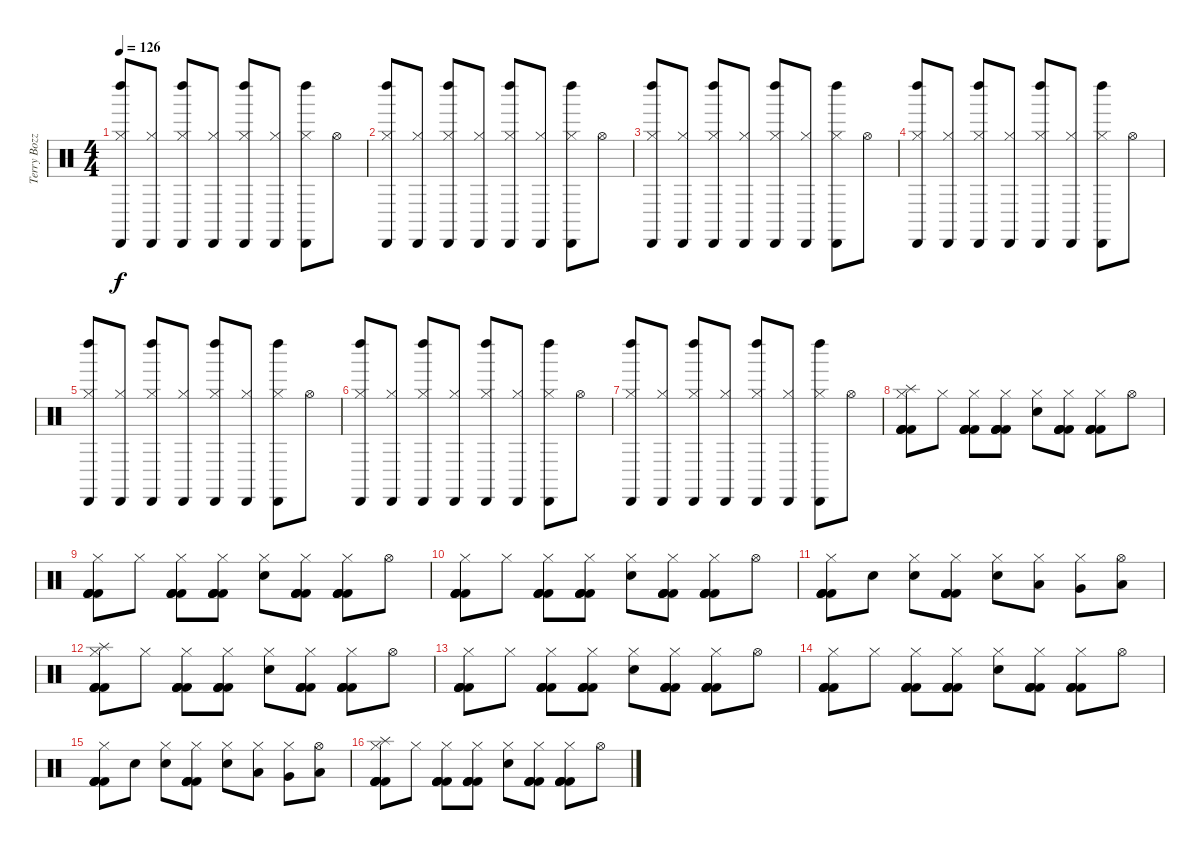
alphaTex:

\track ("Terry Bozzio" "Terry Bozz") {instrument percussion}
\staff {score}
\articulation defaults
\ts (4 4)
\tempo 126
\clef neutral
\ks c
("Hi-Hat (closed)" "Cabasa (hit)" "Left Maraca (hit)").8{dy f} ("Hi-Hat (closed)" "Cabasa (hit)").8 ("Hi-Hat (closed)" "Cabasa (hit)" "Left Maraca (hit)").8 ("Hi-Hat (closed)" "Cabasa (hit)").8 ("Hi-Hat (closed)" "Cabasa (hit)" "Left Maraca (hit)").8 ("Hi-Hat (closed)" "Cabasa (hit)").8 ("Hi-Hat (closed)" "Cabasa (hit)" "Left Maraca (hit)").8 "Hi-Hat (open)".8 |
("Hi-Hat (closed)" "Cabasa (hit)" "Left Maraca (hit)").8 ("Hi-Hat (closed)" "Cabasa (hit)").8 ("Hi-Hat (closed)" "Cabasa (hit)" "Left Maraca (hit)").8 ("Hi-Hat (closed)" "Cabasa (hit)").8 ("Hi-Hat (closed)" "Cabasa (hit)" "Left Maraca (hit)").8 ("Hi-Hat (closed)" "Cabasa (hit)").8 ("Hi-Hat (closed)" "Cabasa (hit)" "Left Maraca (hit)").8 "Hi-Hat (open)".8 |
("Hi-Hat (closed)" "Cabasa (hit)" "Left Maraca (hit)").8 ("Hi-Hat (closed)" "Cabasa (hit)").8 ("Hi-Hat (closed)" "Cabasa (hit)" "Left Maraca (hit)").8 ("Hi-Hat (closed)" "Cabasa (hit)").8 ("Hi-Hat (closed)" "Cabasa (hit)" "Left Maraca (hit)").8 ("Hi-Hat (closed)" "Cabasa (hit)").8 ("Hi-Hat (closed)" "Cabasa (hit)" "Left Maraca (hit)").8 "Hi-Hat (open)".8 |
("Hi-Hat (closed)" "Cabasa (hit)" "Left Maraca (hit)").8 ("Hi-Hat (closed)" "Cabasa (hit)").8 ("Hi-Hat (closed)" "Cabasa (hit)" "Left Maraca (hit)").8 ("Hi-Hat (closed)" "Cabasa (hit)").8 ("Hi-Hat (closed)" "Cabasa (hit)" "Left Maraca (hit)").8 ("Hi-Hat (closed)" "Cabasa (hit)").8 ("Hi-Hat (closed)" "Cabasa (hit)" "Left Maraca (hit)").8 "Hi-Hat (open)".8 |
("Hi-Hat (closed)" "Cabasa (hit)" "Left Maraca (hit)").8 ("Hi-Hat (closed)" "Cabasa (hit)").8 ("Hi-Hat (closed)" "Cabasa (hit)" "Left Maraca (hit)").8 ("Hi-Hat (closed)" "Cabasa (hit)").8 ("Hi-Hat (closed)" "Cabasa (hit)" "Left Maraca (hit)").8 ("Hi-Hat (closed)" "Cabasa (hit)").8 ("Hi-Hat (closed)" "Cabasa (hit)" "Left Maraca (hit)").8 "Hi-Hat (open)".8 |
("Hi-Hat (closed)" "Cabasa (hit)" "Left Maraca (hit)").8 ("Hi-Hat (closed)" "Cabasa (hit)").8 ("Hi-Hat (closed)" "Cabasa (hit)" "Left Maraca (hit)").8 ("Hi-Hat (closed)" "Cabasa (hit)").8 ("Hi-Hat (closed)" "Cabasa (hit)" "Left Maraca (hit)").8 ("Hi-Hat (closed)" "Cabasa (hit)").8 ("Hi-Hat (closed)" "Cabasa (hit)" "Left Maraca (hit)").8 "Hi-Hat (open)".8 |
("Hi-Hat (closed)" "Cabasa (hit)" "Left Maraca (hit)").8 ("Hi-Hat (closed)" "Cabasa (hit)").8 ("Hi-Hat (closed)" "Cabasa (hit)" "Left Maraca (hit)").8 ("Hi-Hat (closed)" "Cabasa (hit)").8 ("Hi-Hat (closed)" "Cabasa (hit)" "Left Maraca (hit)").8 ("Hi-Hat (closed)" "Cabasa (hit)").8 ("Hi-Hat (closed)" "Cabasa (hit)" "Left Maraca (hit)").8 "Hi-Hat (open)".8 |
("Splash (hit)" "Hi-Hat (closed)" "Kick (hit) 2" "Kick (hit) 2" "Kick (hit) 2" "Kick (hit) 2").8{volume 16} "Hi-Hat (closed)".8 ("Hi-Hat (closed)" "Kick (hit) 2" "Kick (hit) 2" "Kick (hit) 2" "Kick (hit) 2").8 ("Hi-Hat (closed)" "Kick (hit) 2" "Kick (hit) 2" "Kick (hit) 2" "Kick (hit) 2").8 ("Hi-Hat (closed)" "Snare (hit) 2").8 ("Hi-Hat (closed)" "Kick (hit) 2" "Kick (hit) 2" "Kick (hit) 2" "Kick (hit) 2").8 ("Hi-Hat (closed)" "Kick (hit) 2" "Kick (hit) 2" "Kick (hit) 2" "Kick (hit) 2").8 "Hi-Hat (open)".8 |
("Hi-Hat (closed)" "Kick (hit) 2" "Kick (hit) 2" "Kick (hit) 2" "Kick (hit) 2").8 "Hi-Hat (closed)".8 ("Hi-Hat (closed)" "Kick (hit) 2" "Kick (hit) 2" "Kick (hit) 2" "Kick (hit) 2").8 ("Hi-Hat (closed)" "Kick (hit) 2" "Kick (hit) 2" "Kick (hit) 2" "Kick (hit) 2").8 ("Hi-Hat (closed)" "Snare (hit) 2").8 ("Hi-Hat (closed)" "Kick (hit) 2" "Kick (hit) 2" "Kick (hit) 2" "Kick (hit) 2").8 ("Hi-Hat (closed)" "Kick (hit) 2" "Kick (hit) 2" "Kick (hit) 2" "Kick (hit) 2").8 "Hi-Hat (open)".8 |
("Hi-Hat (closed)" "Kick (hit) 2" "Kick (hit) 2" "Kick (hit) 2" "Kick (hit) 2").8 "Hi-Hat (closed)".8 ("Hi-Hat (closed)" "Kick (hit) 2" "Kick (hit) 2" "Kick (hit) 2" "Kick (hit) 2").8 ("Hi-Hat (closed)" "Kick (hit) 2" "Kick (hit) 2" "Kick (hit) 2" "Kick (hit) 2").8 ("Hi-Hat (closed)" "Snare (hit) 2").8 ("Hi-Hat (closed)" "Kick (hit) 2" "Kick (hit) 2" "Kick (hit) 2" "Kick (hit) 2").8 ("Hi-Hat (closed)" "Kick (hit) 2" "Kick (hit) 2" "Kick (hit) 2" "Kick (hit) 2").8 "Hi-Hat (open)".8 |
("Hi-Hat (closed)" "Kick (hit) 2" "Kick (hit) 2" "Kick (hit) 2" "Kick (hit) 2").8 "Snare (hit) 2".8 ("Hi-Hat (closed)" "Snare (hit) 2").8 ("Hi-Hat (closed)" "Kick (hit) 2" "Kick (hit) 2" "Kick (hit) 2" "Kick (hit) 2").8 ("Hi-Hat (closed)" "Snare (hit) 2").8 ("Hi-Hat (closed)" "Low Tom (hit)").8 ("Hi-Hat (closed)" "Very Low Tom (hit)").8 ("Hi-Hat (open)" "Low Floor Tom (hit)").8 |
("Splash (hit)" "Hi-Hat (closed)" "Kick (hit) 2" "Kick (hit) 2" "Kick (hit) 2" "Kick (hit) 2").8{volume 16} "Hi-Hat (closed)".8 ("Hi-Hat (closed)" "Kick (hit) 2" "Kick (hit) 2" "Kick (hit) 2" "Kick (hit) 2").8 ("Hi-Hat (closed)" "Kick (hit) 2" "Kick (hit) 2" "Kick (hit) 2" "Kick (hit) 2").8 ("Hi-Hat (closed)" "Snare (hit) 2").8 ("Hi-Hat (closed)" "Kick (hit) 2" "Kick (hit) 2" "Kick (hit) 2" "Kick (hit) 2").8 ("Hi-Hat (closed)" "Kick (hit) 2" "Kick (hit) 2" "Kick (hit) 2" "Kick (hit) 2").8 "Hi-Hat (open)".8 |
("Hi-Hat (closed)" "Kick (hit) 2" "Kick (hit) 2" "Kick (hit) 2" "Kick (hit) 2").8 "Hi-Hat (closed)".8 ("Hi-Hat (closed)" "Kick (hit) 2" "Kick (hit) 2" "Kick (hit) 2" "Kick (hit) 2").8 ("Hi-Hat (closed)" "Kick (hit) 2" "Kick (hit) 2" "Kick (hit) 2" "Kick (hit) 2").8 ("Hi-Hat (closed)" "Snare (hit) 2").8 ("Hi-Hat (closed)" "Kick (hit) 2" "Kick (hit) 2" "Kick (hit) 2" "Kick (hit) 2").8 ("Hi-Hat (closed)" "Kick (hit) 2" "Kick (hit) 2" "Kick (hit) 2" "Kick (hit) 2").8 "Hi-Hat (open)".8 |
("Hi-Hat (closed)" "Kick (hit) 2" "Kick (hit) 2" "Kick (hit) 2" "Kick (hit) 2").8 "Hi-Hat (closed)".8 ("Hi-Hat (closed)" "Kick (hit) 2" "Kick (hit) 2" "Kick (hit) 2" "Kick (hit) 2").8 ("Hi-Hat (closed)" "Kick (hit) 2" "Kick (hit) 2" "Kick (hit) 2" "Kick (hit) 2").8 ("Hi-Hat (closed)" "Snare (hit) 2").8 ("Hi-Hat (closed)" "Kick (hit) 2" "Kick (hit) 2" "Kick (hit) 2" "Kick (hit) 2").8 ("Hi-Hat (closed)" "Kick (hit) 2" "Kick (hit) 2" "Kick (hit) 2" "Kick (hit) 2").8 "Hi-Hat (open)".8 |
("Hi-Hat (closed)" "Kick (hit) 2" "Kick (hit) 2" "Kick (hit) 2" "Kick (hit) 2").8 "Snare (hit) 2".8 ("Hi-Hat (closed)" "Snare (hit) 2").8 ("Hi-Hat (closed)" "Kick (hit) 2" "Kick (hit) 2" "Kick (hit) 2" "Kick (hit) 2").8 ("Hi-Hat (closed)" "Snare (hit) 2").8 ("Hi-Hat (closed)" "Low Tom (hit)").8 ("Hi-Hat (closed)" "Very Low Tom (hit)").8 ("Hi-Hat (open)" "Low Floor Tom (hit)").8 |
("Splash (hit)" "Hi-Hat (closed)" "Kick (hit) 2" "Kick (hit) 2" "Kick (hit) 2" "Kick (hit) 2").8{volume 16} "Hi-Hat (closed)".8 ("Hi-Hat (closed)" "Kick (hit) 2" "Kick (hit) 2" "Kick (hit) 2" "Kick (hit) 2").8 ("Hi-Hat (closed)" "Kick (hit) 2" "Kick (hit) 2" "Kick (hit) 2" "Kick (hit) 2").8 ("Hi-Hat (closed)" "Snare (hit) 2").8 ("Hi-Hat (closed)" "Kick (hit) 2" "Kick (hit) 2" "Kick (hit) 2" "Kick (hit) 2").8 ("Hi-Hat (closed)" "Kick (hit) 2" "Kick (hit) 2" "Kick (hit) 2" "Kick (hit) 2").8 "Hi-Hat (open)".8
